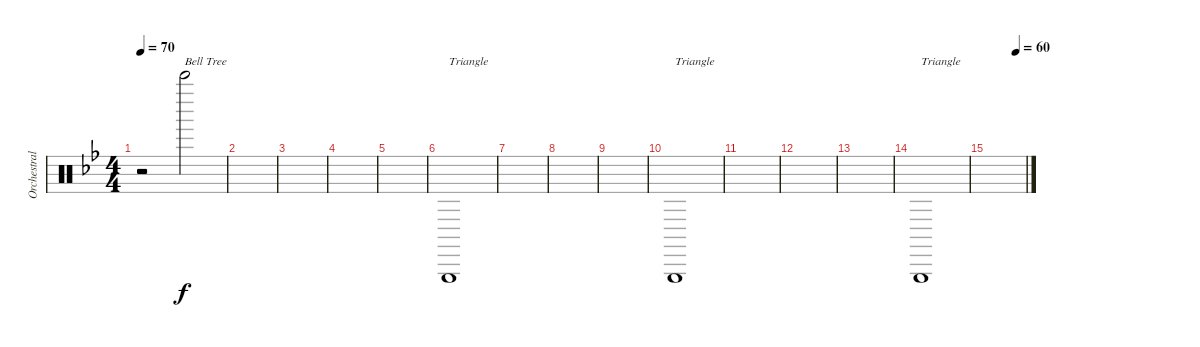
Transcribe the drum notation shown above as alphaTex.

\track ("Orchestral Percussion I" "Orchestral") {instrument percussion}
\staff {score}
\articulation defaults
\ts (4 4)
\tempo 70
\clef neutral
\ks gminor
r.2{dy f} "Bell Tree (hit)".2{txt "Bell Tree"} |
|
|
|
|
"Triangle (hit)".1{txt "Triangle"} |
|
|
|
"Triangle (hit)".1{txt "Triangle"} |
|
|
|
"Triangle (hit)".1{txt "Triangle"} |
\tempo (60 0.75)
